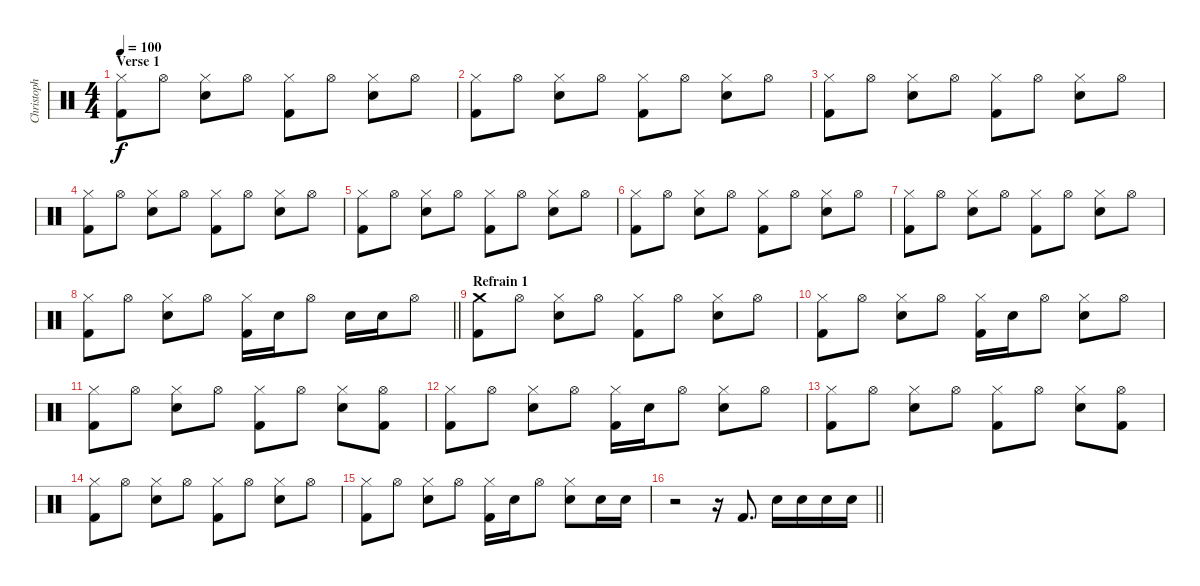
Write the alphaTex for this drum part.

\track ("Christoph - Drums" "Christoph ") {instrument percussion}
\staff {score}
\articulation defaults
\ts (4 4)
\section ("" "Verse 1")
\tempo 100
\clef neutral
\ks c
("Hi-Hat (closed)" "Kick (hit) 2").8{dy f} "Hi-Hat (open)".8 ("Hi-Hat (closed)" "Snare (hit) 2").8 "Hi-Hat (open)".8 ("Hi-Hat (closed)" "Kick (hit) 2").8 "Hi-Hat (open)".8 ("Hi-Hat (closed)" "Snare (hit) 2").8 "Hi-Hat (open)".8 |
("Hi-Hat (closed)" "Kick (hit) 2").8 "Hi-Hat (open)".8 ("Hi-Hat (closed)" "Snare (hit) 2").8 "Hi-Hat (open)".8 ("Hi-Hat (closed)" "Kick (hit) 2").8 "Hi-Hat (open)".8 ("Hi-Hat (closed)" "Snare (hit) 2").8 "Hi-Hat (open)".8 |
("Hi-Hat (closed)" "Kick (hit) 2").8 "Hi-Hat (open)".8 ("Hi-Hat (closed)" "Snare (hit) 2").8 "Hi-Hat (open)".8 ("Hi-Hat (closed)" "Kick (hit) 2").8 "Hi-Hat (open)".8 ("Hi-Hat (closed)" "Snare (hit) 2").8 "Hi-Hat (open)".8 |
("Hi-Hat (closed)" "Kick (hit) 2").8 "Hi-Hat (open)".8 ("Hi-Hat (closed)" "Snare (hit) 2").8 "Hi-Hat (open)".8 ("Hi-Hat (closed)" "Kick (hit) 2").8 "Hi-Hat (open)".8 ("Hi-Hat (closed)" "Snare (hit) 2").8 "Hi-Hat (open)".8 |
("Hi-Hat (closed)" "Kick (hit) 2").8 "Hi-Hat (open)".8 ("Hi-Hat (closed)" "Snare (hit) 2").8 "Hi-Hat (open)".8 ("Hi-Hat (closed)" "Kick (hit) 2").8 "Hi-Hat (open)".8 ("Hi-Hat (closed)" "Snare (hit) 2").8 "Hi-Hat (open)".8 |
("Hi-Hat (closed)" "Kick (hit) 2").8 "Hi-Hat (open)".8 ("Hi-Hat (closed)" "Snare (hit) 2").8 "Hi-Hat (open)".8 ("Hi-Hat (closed)" "Kick (hit) 2").8 "Hi-Hat (open)".8 ("Hi-Hat (closed)" "Snare (hit) 2").8 "Hi-Hat (open)".8 |
("Hi-Hat (closed)" "Kick (hit) 2").8 "Hi-Hat (open)".8 ("Hi-Hat (closed)" "Snare (hit) 2").8 "Hi-Hat (open)".8 ("Hi-Hat (closed)" "Kick (hit) 2").8 "Hi-Hat (open)".8 ("Hi-Hat (closed)" "Snare (hit) 2").8 "Hi-Hat (open)".8 |
\barLineRight lightlight
("Hi-Hat (closed)" "Kick (hit) 2").8 "Hi-Hat (open)".8 ("Hi-Hat (closed)" "Snare (hit) 2").8 "Hi-Hat (open)".8 ("Hi-Hat (closed)" "Kick (hit) 2").16 "Snare (hit) 2".16 "Hi-Hat (open)".8 "Snare (hit) 2".16 "Snare (hit) 2".16 "Hi-Hat (open)".8 |
\section ("" "Refrain 1")
("Crash medium (hit)" "Kick (hit) 2").8 "Hi-Hat (open)".8 ("Hi-Hat (closed)" "Snare (hit) 2").8 "Hi-Hat (open)".8 ("Hi-Hat (closed)" "Kick (hit) 2").8 "Hi-Hat (open)".8 ("Hi-Hat (closed)" "Snare (hit) 2").8 "Hi-Hat (open)".8 |
("Hi-Hat (closed)" "Kick (hit) 2").8 "Hi-Hat (open)".8 ("Hi-Hat (closed)" "Snare (hit) 2").8 "Hi-Hat (open)".8 ("Hi-Hat (closed)" "Kick (hit) 2").16 "Snare (hit) 2".16 "Hi-Hat (open)".8 ("Hi-Hat (closed)" "Snare (hit) 2").8 "Hi-Hat (open)".8 |
("Hi-Hat (closed)" "Kick (hit) 2").8 "Hi-Hat (open)".8 ("Hi-Hat (closed)" "Snare (hit) 2").8 "Hi-Hat (open)".8 ("Hi-Hat (closed)" "Kick (hit) 2").8 "Hi-Hat (open)".8 ("Hi-Hat (closed)" "Snare (hit) 2").8 ("Hi-Hat (open)" "Kick (hit) 2").8 |
("Hi-Hat (closed)" "Kick (hit) 2").8 "Hi-Hat (open)".8 ("Hi-Hat (closed)" "Snare (hit) 2").8 "Hi-Hat (open)".8 ("Hi-Hat (closed)" "Kick (hit) 2").16 "Snare (hit) 2".16 "Hi-Hat (open)".8 ("Hi-Hat (closed)" "Snare (hit) 2").8 "Hi-Hat (open)".8 |
("Hi-Hat (closed)" "Kick (hit) 2").8 "Hi-Hat (open)".8 ("Hi-Hat (closed)" "Snare (hit) 2").8 "Hi-Hat (open)".8 ("Hi-Hat (closed)" "Kick (hit) 2").8 "Hi-Hat (open)".8 ("Hi-Hat (closed)" "Snare (hit) 2").8 ("Hi-Hat (open)" "Kick (hit) 2").8 |
("Hi-Hat (closed)" "Kick (hit) 2").8 "Hi-Hat (open)".8 ("Hi-Hat (closed)" "Snare (hit) 2").8 "Hi-Hat (open)".8 ("Hi-Hat (closed)" "Kick (hit) 2").8 "Hi-Hat (open)".8 ("Hi-Hat (closed)" "Snare (hit) 2").8 "Hi-Hat (open)".8 |
("Hi-Hat (closed)" "Kick (hit) 2").8 "Hi-Hat (open)".8 ("Hi-Hat (closed)" "Snare (hit) 2").8 "Hi-Hat (open)".8 ("Hi-Hat (closed)" "Kick (hit) 2").16 "Snare (hit) 2".16 "Hi-Hat (open)".8 ("Hi-Hat (closed)" "Snare (hit) 2").8 "Snare (hit) 2".16 "Snare (hit) 2".16 |
\barLineRight lightlight
r.2 r.16 "Kick (hit) 2".8{d} "Snare (hit) 2".16 "Snare (hit) 2".16 "Snare (hit) 2".16 "Snare (hit) 2".16
